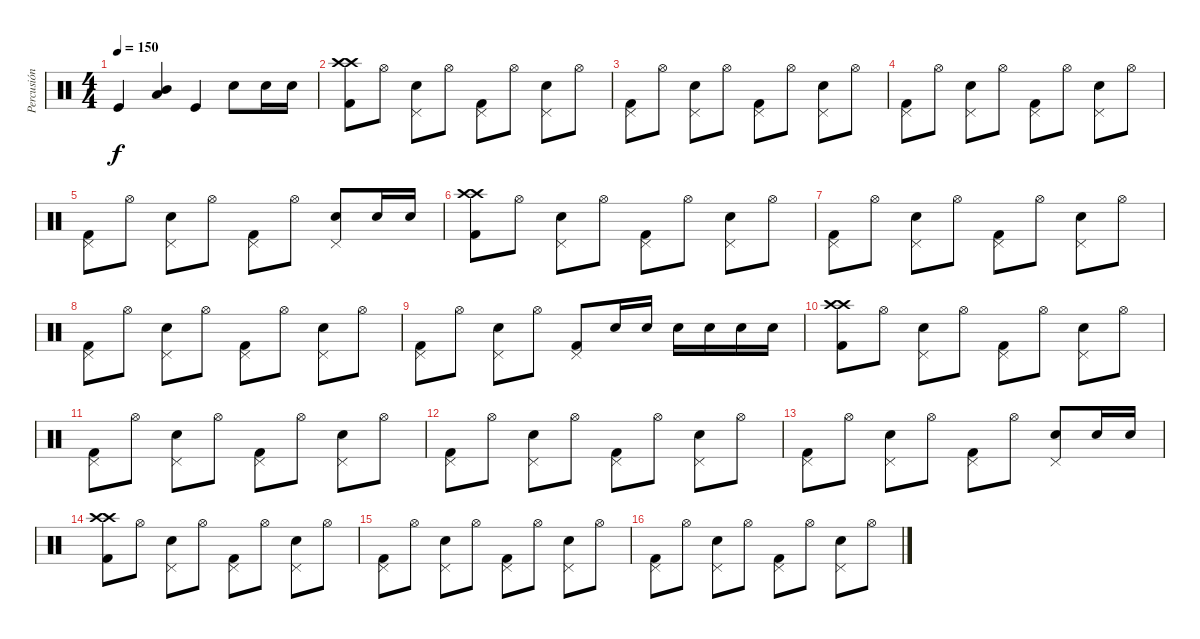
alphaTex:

\track ("Percusión" "Percusión") {instrument percussion}
\staff {score}
\articulation defaults
\ts (4 4)
\tempo 150
\clef neutral
\ks c "Kick (hit)".4{dy f}
("Low Tom (hit)" "Mid Tom (hit)").4 "Kick (hit)".4 "Electric Snare (hit)".8 "Electric Snare (hit)".16 "Electric Snare (hit)".16 |
("Crash high (hit)" "Crash high (hit)" "Kick (hit) 2").8 "Hi-Hat (open)".8 ("Pedal Hi-Hat (hit)" "Electric Snare (hit)").8 "Hi-Hat (open)".8 ("Pedal Hi-Hat (hit)" "Kick (hit) 2").8 "Hi-Hat (open)".8 ("Pedal Hi-Hat (hit)" "Electric Snare (hit)").8 "Hi-Hat (open)".8 |
("Pedal Hi-Hat (hit)" "Kick (hit) 2").8 "Hi-Hat (open)".8 ("Pedal Hi-Hat (hit)" "Electric Snare (hit)").8 "Hi-Hat (open)".8 ("Pedal Hi-Hat (hit)" "Kick (hit) 2").8 "Hi-Hat (open)".8 ("Pedal Hi-Hat (hit)" "Electric Snare (hit)").8 "Hi-Hat (open)".8 |
("Pedal Hi-Hat (hit)" "Kick (hit) 2").8 "Hi-Hat (open)".8 ("Pedal Hi-Hat (hit)" "Electric Snare (hit)").8 "Hi-Hat (open)".8 ("Pedal Hi-Hat (hit)" "Kick (hit) 2").8 "Hi-Hat (open)".8 ("Pedal Hi-Hat (hit)" "Electric Snare (hit)").8 "Hi-Hat (open)".8 |
("Pedal Hi-Hat (hit)" "Kick (hit) 2").8 "Hi-Hat (open)".8 ("Pedal Hi-Hat (hit)" "Electric Snare (hit)").8 "Hi-Hat (open)".8 ("Pedal Hi-Hat (hit)" "Kick (hit) 2").8 "Hi-Hat (open)".8 ("Pedal Hi-Hat (hit)" "Electric Snare (hit)").8 "Electric Snare (hit)".16 "Electric Snare (hit)".16 |
("Crash high (hit)" "Crash high (hit)" "Kick (hit) 2").8 "Hi-Hat (open)".8 ("Pedal Hi-Hat (hit)" "Electric Snare (hit)").8 "Hi-Hat (open)".8 ("Pedal Hi-Hat (hit)" "Kick (hit) 2").8 "Hi-Hat (open)".8 ("Pedal Hi-Hat (hit)" "Electric Snare (hit)").8 "Hi-Hat (open)".8 |
("Pedal Hi-Hat (hit)" "Kick (hit) 2").8 "Hi-Hat (open)".8 ("Pedal Hi-Hat (hit)" "Electric Snare (hit)").8 "Hi-Hat (open)".8 ("Pedal Hi-Hat (hit)" "Kick (hit) 2").8 "Hi-Hat (open)".8 ("Pedal Hi-Hat (hit)" "Electric Snare (hit)").8 "Hi-Hat (open)".8 |
("Pedal Hi-Hat (hit)" "Kick (hit) 2").8 "Hi-Hat (open)".8 ("Pedal Hi-Hat (hit)" "Electric Snare (hit)").8 "Hi-Hat (open)".8 ("Pedal Hi-Hat (hit)" "Kick (hit) 2").8 "Hi-Hat (open)".8 ("Pedal Hi-Hat (hit)" "Electric Snare (hit)").8 "Hi-Hat (open)".8 |
("Pedal Hi-Hat (hit)" "Kick (hit) 2").8 "Hi-Hat (open)".8 ("Pedal Hi-Hat (hit)" "Electric Snare (hit)").8 "Hi-Hat (open)".8 ("Pedal Hi-Hat (hit)" "Kick (hit) 2").8 "Electric Snare (hit)".16 "Electric Snare (hit)".16 "Electric Snare (hit)".16 "Electric Snare (hit)".16 "Electric Snare (hit)".16 "Electric Snare (hit)".16 |
("Crash high (hit)" "Crash high (hit)" "Kick (hit) 2").8 "Hi-Hat (open)".8 ("Pedal Hi-Hat (hit)" "Electric Snare (hit)").8 "Hi-Hat (open)".8 ("Pedal Hi-Hat (hit)" "Kick (hit) 2").8 "Hi-Hat (open)".8 ("Pedal Hi-Hat (hit)" "Electric Snare (hit)").8 "Hi-Hat (open)".8 |
("Pedal Hi-Hat (hit)" "Kick (hit) 2").8 "Hi-Hat (open)".8 ("Pedal Hi-Hat (hit)" "Electric Snare (hit)").8 "Hi-Hat (open)".8 ("Pedal Hi-Hat (hit)" "Kick (hit) 2").8 "Hi-Hat (open)".8 ("Pedal Hi-Hat (hit)" "Electric Snare (hit)").8 "Hi-Hat (open)".8 |
("Pedal Hi-Hat (hit)" "Kick (hit) 2").8 "Hi-Hat (open)".8 ("Pedal Hi-Hat (hit)" "Electric Snare (hit)").8 "Hi-Hat (open)".8 ("Pedal Hi-Hat (hit)" "Kick (hit) 2").8 "Hi-Hat (open)".8 ("Pedal Hi-Hat (hit)" "Electric Snare (hit)").8 "Hi-Hat (open)".8 |
("Pedal Hi-Hat (hit)" "Kick (hit) 2").8 "Hi-Hat (open)".8 ("Pedal Hi-Hat (hit)" "Electric Snare (hit)").8 "Hi-Hat (open)".8 ("Pedal Hi-Hat (hit)" "Kick (hit) 2").8 "Hi-Hat (open)".8 ("Pedal Hi-Hat (hit)" "Electric Snare (hit)").8 "Electric Snare (hit)".16 "Electric Snare (hit)".16 |
("Crash high (hit)" "Crash high (hit)" "Kick (hit) 2").8 "Hi-Hat (open)".8 ("Pedal Hi-Hat (hit)" "Electric Snare (hit)").8 "Hi-Hat (open)".8 ("Pedal Hi-Hat (hit)" "Kick (hit) 2").8 "Hi-Hat (open)".8 ("Pedal Hi-Hat (hit)" "Electric Snare (hit)").8 "Hi-Hat (open)".8 |
("Pedal Hi-Hat (hit)" "Kick (hit) 2").8 "Hi-Hat (open)".8 ("Pedal Hi-Hat (hit)" "Electric Snare (hit)").8 "Hi-Hat (open)".8 ("Pedal Hi-Hat (hit)" "Kick (hit) 2").8 "Hi-Hat (open)".8 ("Pedal Hi-Hat (hit)" "Electric Snare (hit)").8 "Hi-Hat (open)".8 |
("Pedal Hi-Hat (hit)" "Kick (hit) 2").8 "Hi-Hat (open)".8 ("Pedal Hi-Hat (hit)" "Electric Snare (hit)").8 "Hi-Hat (open)".8 ("Pedal Hi-Hat (hit)" "Kick (hit) 2").8 "Hi-Hat (open)".8 ("Pedal Hi-Hat (hit)" "Electric Snare (hit)").8 "Hi-Hat (open)".8
